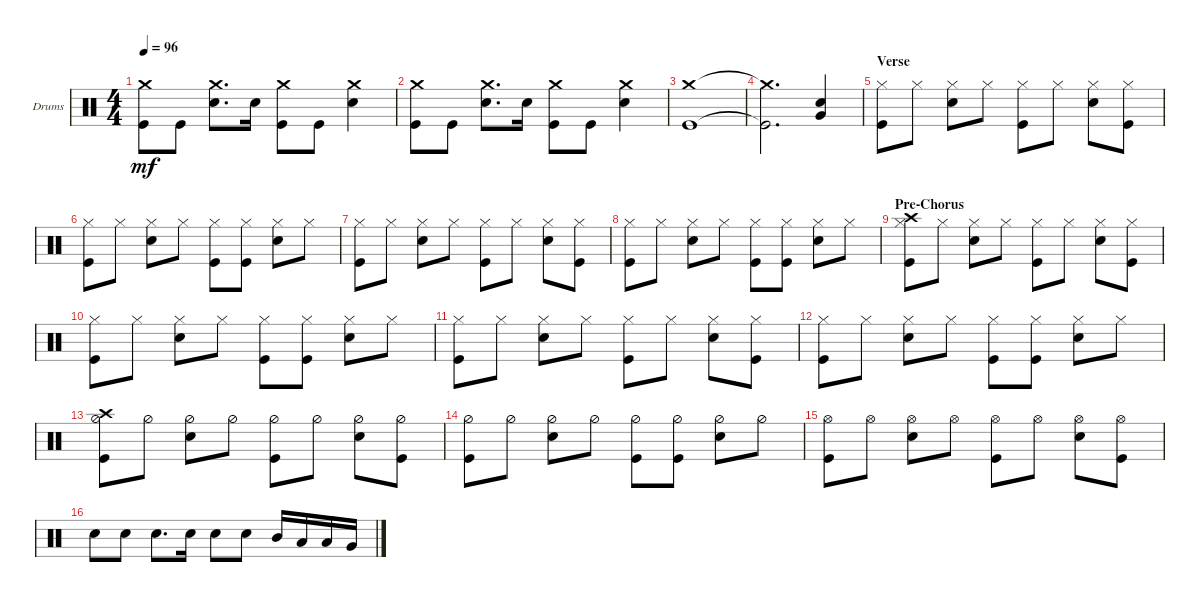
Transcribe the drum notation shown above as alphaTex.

\defaultSystemsLayout 4
\bracketExtendMode groupsimilarinstruments
\firstSystemTrackNameOrientation horizontal
\otherSystemsTrackNameOrientation horizontal
\track ("Tico" "Drums") {instrument percussion}
\staff {score}
\articulation defaults
\ts (4 4)
\tempo 96
\clef neutral
\ks c
("Kick (hit)" "Crash medium (hit)").8{dy mf} "Kick (hit)".8 ("Snare (hit) 2" "Crash medium (hit)").8{d} "Snare (hit) 2".16 ("Kick (hit)" "Crash medium (hit)").8 "Kick (hit)".8 ("Snare (hit) 2" "Crash medium (hit)").4 |
("Kick (hit)" "Crash medium (hit)").8 "Kick (hit)".8 ("Snare (hit) 2" "Crash medium (hit)").8{d} "Snare (hit) 2".16 ("Kick (hit)" "Crash medium (hit)").8 "Kick (hit)".8 ("Snare (hit) 2" "Crash medium (hit)").4 |
("Kick (hit)" "Crash medium (hit)").1 |
("Kick (hit)"{t} "Crash medium (hit)"{t}).2{d} ("Snare (hit) 2" "Very Low Tom (hit)").4 |
\section ("" "Verse")
("Kick (hit)" "Hi-Hat (closed)").8 "Hi-Hat (closed)".8 ("Hi-Hat (closed)" "Snare (hit) 2").8 "Hi-Hat (closed)".8 ("Hi-Hat (closed)" "Kick (hit)").8 "Hi-Hat (closed)".8 ("Hi-Hat (closed)" "Snare (hit) 2").8 ("Hi-Hat (closed)" "Kick (hit)").8 |
("Kick (hit)" "Hi-Hat (closed)").8 "Hi-Hat (closed)".8 ("Hi-Hat (closed)" "Snare (hit) 2").8 "Hi-Hat (closed)".8 ("Hi-Hat (closed)" "Kick (hit)").8 ("Hi-Hat (closed)" "Kick (hit)").8 ("Hi-Hat (closed)" "Snare (hit) 2").8 "Hi-Hat (closed)".8 |
("Kick (hit)" "Hi-Hat (closed)").8 "Hi-Hat (closed)".8 ("Hi-Hat (closed)" "Snare (hit) 2").8 "Hi-Hat (closed)".8 ("Hi-Hat (closed)" "Kick (hit)").8 "Hi-Hat (closed)".8 ("Hi-Hat (closed)" "Snare (hit) 2").8 ("Hi-Hat (closed)" "Kick (hit)").8 |
("Kick (hit)" "Hi-Hat (closed)").8 "Hi-Hat (closed)".8 ("Hi-Hat (closed)" "Snare (hit) 2").8 "Hi-Hat (closed)".8 ("Hi-Hat (closed)" "Kick (hit)").8 ("Hi-Hat (closed)" "Kick (hit)").8 ("Hi-Hat (closed)" "Snare (hit) 2").8 "Hi-Hat (closed)".8 |
\section ("" "Pre-Chorus")
("Kick (hit)" "Crash high (hit)" "Hi-Hat (closed)").8 "Hi-Hat (closed)".8 ("Hi-Hat (closed)" "Snare (hit) 2").8 "Hi-Hat (closed)".8 ("Hi-Hat (closed)" "Kick (hit)").8 "Hi-Hat (closed)".8 ("Hi-Hat (closed)" "Snare (hit) 2").8 ("Hi-Hat (closed)" "Kick (hit)").8 |
("Kick (hit)" "Hi-Hat (closed)").8 "Hi-Hat (closed)".8 ("Hi-Hat (closed)" "Snare (hit) 2").8 "Hi-Hat (closed)".8 ("Hi-Hat (closed)" "Kick (hit)").8 ("Hi-Hat (closed)" "Kick (hit)").8 ("Hi-Hat (closed)" "Snare (hit) 2").8 "Hi-Hat (closed)".8 |
("Kick (hit)" "Hi-Hat (closed)").8 "Hi-Hat (closed)".8 ("Hi-Hat (closed)" "Snare (hit) 2").8 "Hi-Hat (closed)".8 ("Hi-Hat (closed)" "Kick (hit)").8 "Hi-Hat (closed)".8 ("Hi-Hat (closed)" "Snare (hit) 2").8 ("Hi-Hat (closed)" "Kick (hit)").8 |
("Kick (hit)" "Hi-Hat (closed)").8 "Hi-Hat (closed)".8 ("Hi-Hat (closed)" "Snare (hit) 2").8 "Hi-Hat (closed)".8 ("Hi-Hat (closed)" "Kick (hit)").8 ("Hi-Hat (closed)" "Kick (hit)").8 ("Hi-Hat (closed)" "Snare (hit) 2").8 "Hi-Hat (closed)".8 |
("Kick (hit)" "Crash high (hit)" "Hi-Hat (half)").8 "Hi-Hat (half)".8 ("Hi-Hat (half)" "Snare (hit) 2").8 "Hi-Hat (half)".8 ("Hi-Hat (half)" "Kick (hit)").8 "Hi-Hat (half)".8 ("Hi-Hat (half)" "Snare (hit) 2").8 ("Hi-Hat (half)" "Kick (hit)").8 |
("Kick (hit)" "Hi-Hat (half)").8 "Hi-Hat (half)".8 ("Hi-Hat (half)" "Snare (hit) 2").8 "Hi-Hat (half)".8 ("Hi-Hat (half)" "Kick (hit)").8 ("Hi-Hat (half)" "Kick (hit)").8 ("Hi-Hat (half)" "Snare (hit) 2").8 "Hi-Hat (half)".8 |
("Kick (hit)" "Hi-Hat (open)").8 "Hi-Hat (open)".8 ("Hi-Hat (open)" "Snare (hit) 2").8 "Hi-Hat (open)".8 ("Hi-Hat (open)" "Kick (hit)").8 "Hi-Hat (open)".8 ("Hi-Hat (open)" "Snare (hit) 2").8 ("Hi-Hat (open)" "Kick (hit)").8 |
"Snare (hit) 2".8 "Snare (hit) 2".8 "Snare (hit) 2".8{d} "Snare (hit) 2".16 "Snare (hit) 2".8 "Snare (hit) 2".8 "Mid Tom (hit)".16 "Low Tom (hit)".16 "Low Tom (hit)".16 "Very Low Tom (hit)".16
